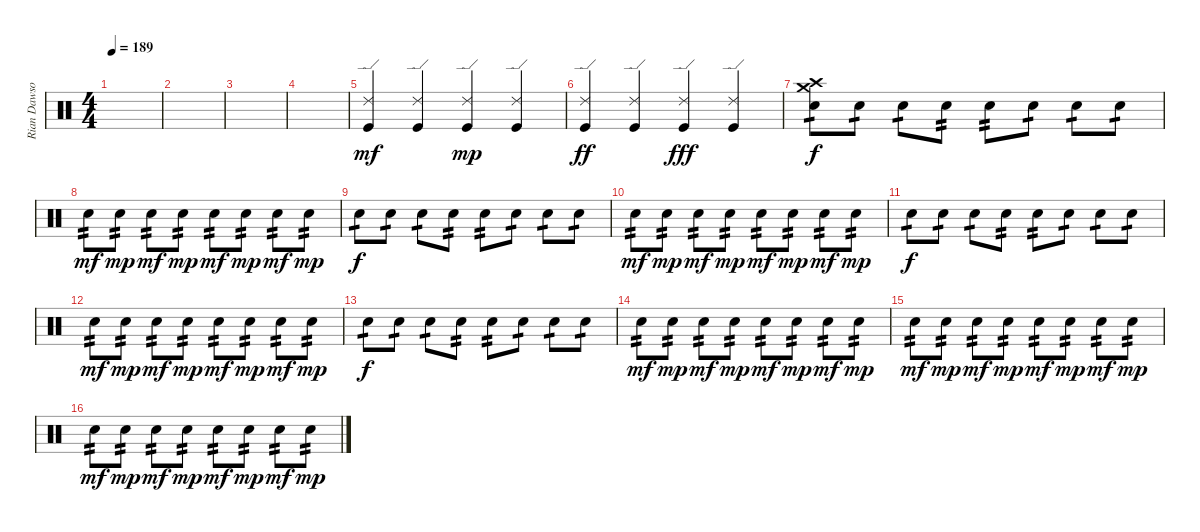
\track ("Rian Dawson" "Rian Dawso") {instrument percussion}
\staff {score}
\articulation defaults
\ts (4 4)
\tempo 189
\clef neutral
\ks c
|
|
|
|
("Ride (edge) 2" "Kick (hit)").4{dy mf} ("Ride (edge) 2" "Kick (hit)").4 ("Ride (edge) 2" "Kick (hit)").4{dy mp} ("Ride (edge) 2" "Kick (hit)").4 |
("Ride (edge) 2" "Kick (hit)").4{dy ff} ("Ride (edge) 2" "Kick (hit)").4 ("Ride (edge) 2" "Kick (hit)").4{dy fff} ("Ride (edge) 2" "Kick (hit)").4 |
("Crash high (hit)" "Crash medium (hit)" "Snare (hit) 2").8{tp 1 dy f} "Snare (hit) 2".8{tp 1} "Snare (hit) 2".8{tp 1} "Snare (hit) 2".8{tp 2} "Snare (hit) 2".8{tp 2} "Snare (hit) 2".8{tp 1} "Snare (hit) 2".8{tp 1} "Snare (hit) 2".8{tp 1} |
"Snare (hit) 2".8{tp 2 dy mf} "Snare (hit) 2".8{tp 2 dy mp} "Snare (hit) 2".8{tp 2 dy mf} "Snare (hit) 2".8{tp 2 dy mp} "Snare (hit) 2".8{tp 2 dy mf} "Snare (hit) 2".8{tp 2 dy mp} "Snare (hit) 2".8{tp 2 dy mf} "Snare (hit) 2".8{tp 2 dy mp} |
"Snare (hit) 2".8{tp 1 dy f} "Snare (hit) 2".8{tp 1} "Snare (hit) 2".8{tp 1} "Snare (hit) 2".8{tp 2} "Snare (hit) 2".8{tp 2} "Snare (hit) 2".8{tp 1} "Snare (hit) 2".8{tp 1} "Snare (hit) 2".8{tp 1} |
"Snare (hit) 2".8{tp 2 dy mf} "Snare (hit) 2".8{tp 2 dy mp} "Snare (hit) 2".8{tp 2 dy mf} "Snare (hit) 2".8{tp 2 dy mp} "Snare (hit) 2".8{tp 2 dy mf} "Snare (hit) 2".8{tp 2 dy mp} "Snare (hit) 2".8{tp 2 dy mf} "Snare (hit) 2".8{tp 2 dy mp} |
"Snare (hit) 2".8{tp 1 dy f} "Snare (hit) 2".8{tp 1} "Snare (hit) 2".8{tp 1} "Snare (hit) 2".8{tp 2} "Snare (hit) 2".8{tp 2} "Snare (hit) 2".8{tp 1} "Snare (hit) 2".8{tp 1} "Snare (hit) 2".8{tp 1} |
"Snare (hit) 2".8{tp 2 dy mf} "Snare (hit) 2".8{tp 2 dy mp} "Snare (hit) 2".8{tp 2 dy mf} "Snare (hit) 2".8{tp 2 dy mp} "Snare (hit) 2".8{tp 2 dy mf} "Snare (hit) 2".8{tp 2 dy mp} "Snare (hit) 2".8{tp 2 dy mf} "Snare (hit) 2".8{tp 2 dy mp} |
"Snare (hit) 2".8{tp 1 dy f} "Snare (hit) 2".8{tp 1} "Snare (hit) 2".8{tp 1} "Snare (hit) 2".8{tp 2} "Snare (hit) 2".8{tp 2} "Snare (hit) 2".8{tp 1} "Snare (hit) 2".8{tp 1} "Snare (hit) 2".8{tp 1} |
"Snare (hit) 2".8{tp 2 dy mf} "Snare (hit) 2".8{tp 2 dy mp} "Snare (hit) 2".8{tp 2 dy mf} "Snare (hit) 2".8{tp 2 dy mp} "Snare (hit) 2".8{tp 2 dy mf} "Snare (hit) 2".8{tp 2 dy mp} "Snare (hit) 2".8{tp 2 dy mf} "Snare (hit) 2".8{tp 2 dy mp} |
"Snare (hit) 2".8{tp 2 dy mf} "Snare (hit) 2".8{tp 2 dy mp} "Snare (hit) 2".8{tp 2 dy mf} "Snare (hit) 2".8{tp 2 dy mp} "Snare (hit) 2".8{tp 2 dy mf} "Snare (hit) 2".8{tp 2 dy mp} "Snare (hit) 2".8{tp 2 dy mf} "Snare (hit) 2".8{tp 2 dy mp} |
"Snare (hit) 2".8{tp 2 dy mf} "Snare (hit) 2".8{tp 2 dy mp} "Snare (hit) 2".8{tp 2 dy mf} "Snare (hit) 2".8{tp 2 dy mp} "Snare (hit) 2".8{tp 2 dy mf} "Snare (hit) 2".8{tp 2 dy mp} "Snare (hit) 2".8{tp 2 dy mf} "Snare (hit) 2".8{tp 2 dy mp}
